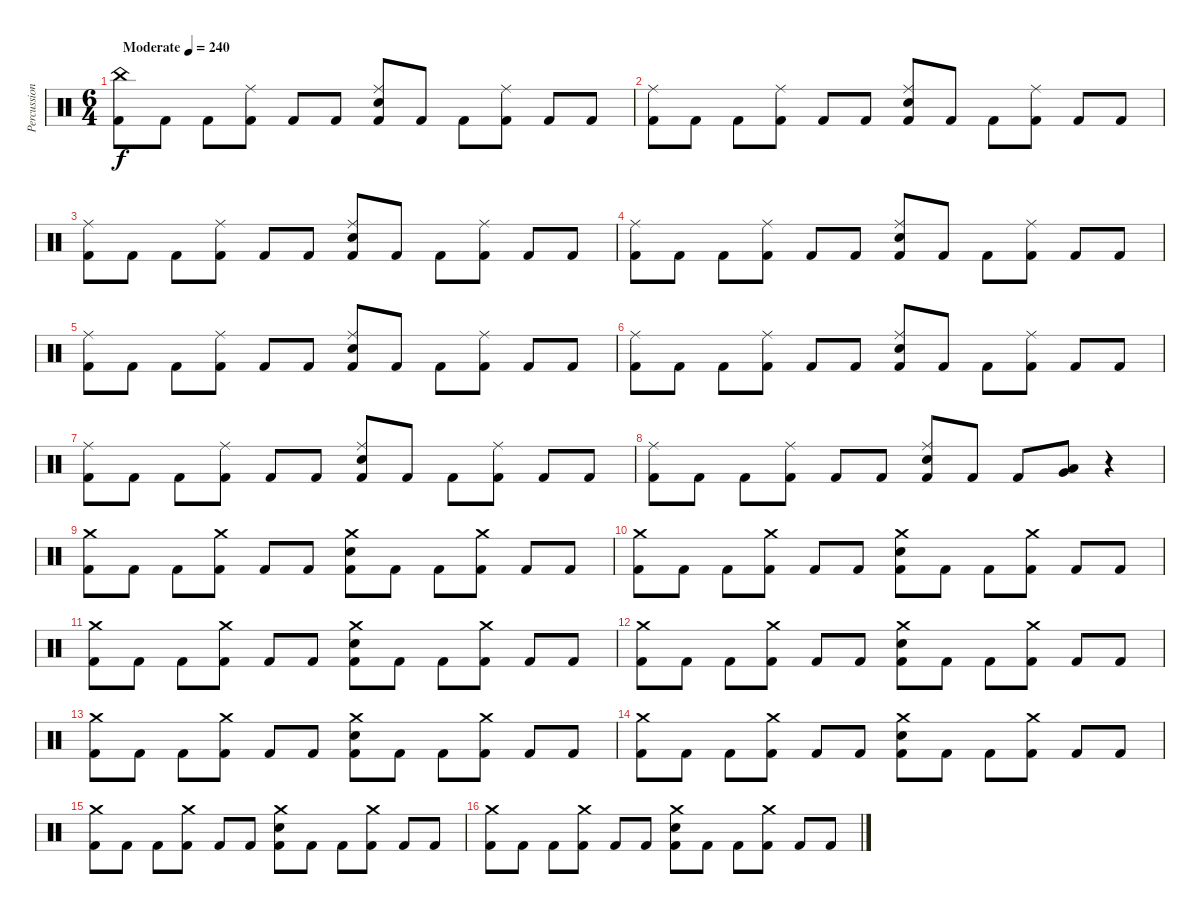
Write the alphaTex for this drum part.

\track ("Percussion" "Percussion") {instrument percussion}
\staff {score}
\articulation defaults
\ts (6 4)
\tempo (240 "Moderate")
\clef neutral
\ks c
("China (hit)" "Kick (hit) 2").8{dy f} "Kick (hit) 2".8 "Kick (hit) 2".8 ("Ride (middle)" "Kick (hit) 2").8 "Kick (hit) 2".8 "Kick (hit) 2".8 ("Ride (middle)" "Electric Snare (hit)" "Kick (hit) 2").8 "Kick (hit) 2".8 "Kick (hit) 2".8 ("Ride (middle)" "Kick (hit) 2").8 "Kick (hit) 2".8 "Kick (hit) 2".8 |
("Ride (middle)" "Kick (hit) 2").8 "Kick (hit) 2".8 "Kick (hit) 2".8 ("Ride (middle)" "Kick (hit) 2").8 "Kick (hit) 2".8 "Kick (hit) 2".8 ("Ride (middle)" "Electric Snare (hit)" "Kick (hit) 2").8 "Kick (hit) 2".8 "Kick (hit) 2".8 ("Ride (middle)" "Kick (hit) 2").8 "Kick (hit) 2".8 "Kick (hit) 2".8 |
("Ride (middle)" "Kick (hit) 2").8 "Kick (hit) 2".8 "Kick (hit) 2".8 ("Ride (middle)" "Kick (hit) 2").8 "Kick (hit) 2".8 "Kick (hit) 2".8 ("Ride (middle)" "Electric Snare (hit)" "Kick (hit) 2").8 "Kick (hit) 2".8 "Kick (hit) 2".8 ("Ride (middle)" "Kick (hit) 2").8 "Kick (hit) 2".8 "Kick (hit) 2".8 |
("Ride (middle)" "Kick (hit) 2").8 "Kick (hit) 2".8 "Kick (hit) 2".8 ("Ride (middle)" "Kick (hit) 2").8 "Kick (hit) 2".8 "Kick (hit) 2".8 ("Ride (middle)" "Electric Snare (hit)" "Kick (hit) 2").8 "Kick (hit) 2".8 "Kick (hit) 2".8 ("Ride (middle)" "Kick (hit) 2").8 "Kick (hit) 2".8 "Kick (hit) 2".8 |
("Ride (middle)" "Kick (hit) 2").8 "Kick (hit) 2".8 "Kick (hit) 2".8 ("Ride (middle)" "Kick (hit) 2").8 "Kick (hit) 2".8 "Kick (hit) 2".8 ("Ride (middle)" "Electric Snare (hit)" "Kick (hit) 2").8 "Kick (hit) 2".8 "Kick (hit) 2".8 ("Ride (middle)" "Kick (hit) 2").8 "Kick (hit) 2".8 "Kick (hit) 2".8 |
("Ride (middle)" "Kick (hit) 2").8 "Kick (hit) 2".8 "Kick (hit) 2".8 ("Ride (middle)" "Kick (hit) 2").8 "Kick (hit) 2".8 "Kick (hit) 2".8 ("Ride (middle)" "Electric Snare (hit)" "Kick (hit) 2").8 "Kick (hit) 2".8 "Kick (hit) 2".8 ("Ride (middle)" "Kick (hit) 2").8 "Kick (hit) 2".8 "Kick (hit) 2".8 |
("Ride (middle)" "Kick (hit) 2").8 "Kick (hit) 2".8 "Kick (hit) 2".8 ("Ride (middle)" "Kick (hit) 2").8 "Kick (hit) 2".8 "Kick (hit) 2".8 ("Ride (middle)" "Electric Snare (hit)" "Kick (hit) 2").8 "Kick (hit) 2".8 "Kick (hit) 2".8 ("Ride (middle)" "Kick (hit) 2").8 "Kick (hit) 2".8 "Kick (hit) 2".8 |
("Ride (middle)" "Kick (hit) 2").8 "Kick (hit) 2".8 "Kick (hit) 2".8 ("Ride (middle)" "Kick (hit) 2").8 "Kick (hit) 2".8 "Kick (hit) 2".8 ("Ride (middle)" "Electric Snare (hit)" "Kick (hit) 2").8 "Kick (hit) 2".8 "Kick (hit) 2".8 ("Very Low Tom (hit)" "Low Floor Tom (hit)").8 r.4 |
("Crash medium (hit)" "Kick (hit) 2").8{volume 13} "Kick (hit) 2".8 "Kick (hit) 2".8 ("Crash medium (hit)" "Kick (hit) 2").8 "Kick (hit) 2".8 "Kick (hit) 2".8 ("Crash medium (hit)" "Electric Snare (hit)" "Kick (hit) 2").8 "Kick (hit) 2".8 "Kick (hit) 2".8 ("Crash medium (hit)" "Kick (hit) 2").8 "Kick (hit) 2".8 "Kick (hit) 2".8 |
("Crash medium (hit)" "Kick (hit) 2").8 "Kick (hit) 2".8 "Kick (hit) 2".8 ("Crash medium (hit)" "Kick (hit) 2").8 "Kick (hit) 2".8 "Kick (hit) 2".8 ("Crash medium (hit)" "Electric Snare (hit)" "Kick (hit) 2").8 "Kick (hit) 2".8 "Kick (hit) 2".8 ("Crash medium (hit)" "Kick (hit) 2").8 "Kick (hit) 2".8 "Kick (hit) 2".8 |
("Crash medium (hit)" "Kick (hit) 2").8 "Kick (hit) 2".8 "Kick (hit) 2".8 ("Crash medium (hit)" "Kick (hit) 2").8 "Kick (hit) 2".8 "Kick (hit) 2".8 ("Crash medium (hit)" "Electric Snare (hit)" "Kick (hit) 2").8 "Kick (hit) 2".8 "Kick (hit) 2".8 ("Crash medium (hit)" "Kick (hit) 2").8 "Kick (hit) 2".8 "Kick (hit) 2".8 |
("Crash medium (hit)" "Kick (hit) 2").8 "Kick (hit) 2".8 "Kick (hit) 2".8 ("Crash medium (hit)" "Kick (hit) 2").8 "Kick (hit) 2".8 "Kick (hit) 2".8 ("Crash medium (hit)" "Electric Snare (hit)" "Kick (hit) 2").8 "Kick (hit) 2".8 "Kick (hit) 2".8 ("Crash medium (hit)" "Kick (hit) 2").8 "Kick (hit) 2".8 "Kick (hit) 2".8 |
("Crash medium (hit)" "Kick (hit) 2").8 "Kick (hit) 2".8 "Kick (hit) 2".8 ("Crash medium (hit)" "Kick (hit) 2").8 "Kick (hit) 2".8 "Kick (hit) 2".8 ("Crash medium (hit)" "Electric Snare (hit)" "Kick (hit) 2").8 "Kick (hit) 2".8 "Kick (hit) 2".8 ("Crash medium (hit)" "Kick (hit) 2").8 "Kick (hit) 2".8 "Kick (hit) 2".8 |
("Crash medium (hit)" "Kick (hit) 2").8 "Kick (hit) 2".8 "Kick (hit) 2".8 ("Crash medium (hit)" "Kick (hit) 2").8 "Kick (hit) 2".8 "Kick (hit) 2".8 ("Crash medium (hit)" "Electric Snare (hit)" "Kick (hit) 2").8 "Kick (hit) 2".8 "Kick (hit) 2".8 ("Crash medium (hit)" "Kick (hit) 2").8 "Kick (hit) 2".8 "Kick (hit) 2".8 |
("Crash medium (hit)" "Kick (hit) 2").8 "Kick (hit) 2".8 "Kick (hit) 2".8 ("Crash medium (hit)" "Kick (hit) 2").8 "Kick (hit) 2".8 "Kick (hit) 2".8 ("Crash medium (hit)" "Electric Snare (hit)" "Kick (hit) 2").8 "Kick (hit) 2".8 "Kick (hit) 2".8 ("Crash medium (hit)" "Kick (hit) 2").8 "Kick (hit) 2".8 "Kick (hit) 2".8 |
("Crash medium (hit)" "Kick (hit) 2").8 "Kick (hit) 2".8 "Kick (hit) 2".8 ("Crash medium (hit)" "Kick (hit) 2").8 "Kick (hit) 2".8 "Kick (hit) 2".8 ("Crash medium (hit)" "Electric Snare (hit)" "Kick (hit) 2").8 "Kick (hit) 2".8 "Kick (hit) 2".8 ("Crash medium (hit)" "Kick (hit) 2").8 "Kick (hit) 2".8 "Kick (hit) 2".8
